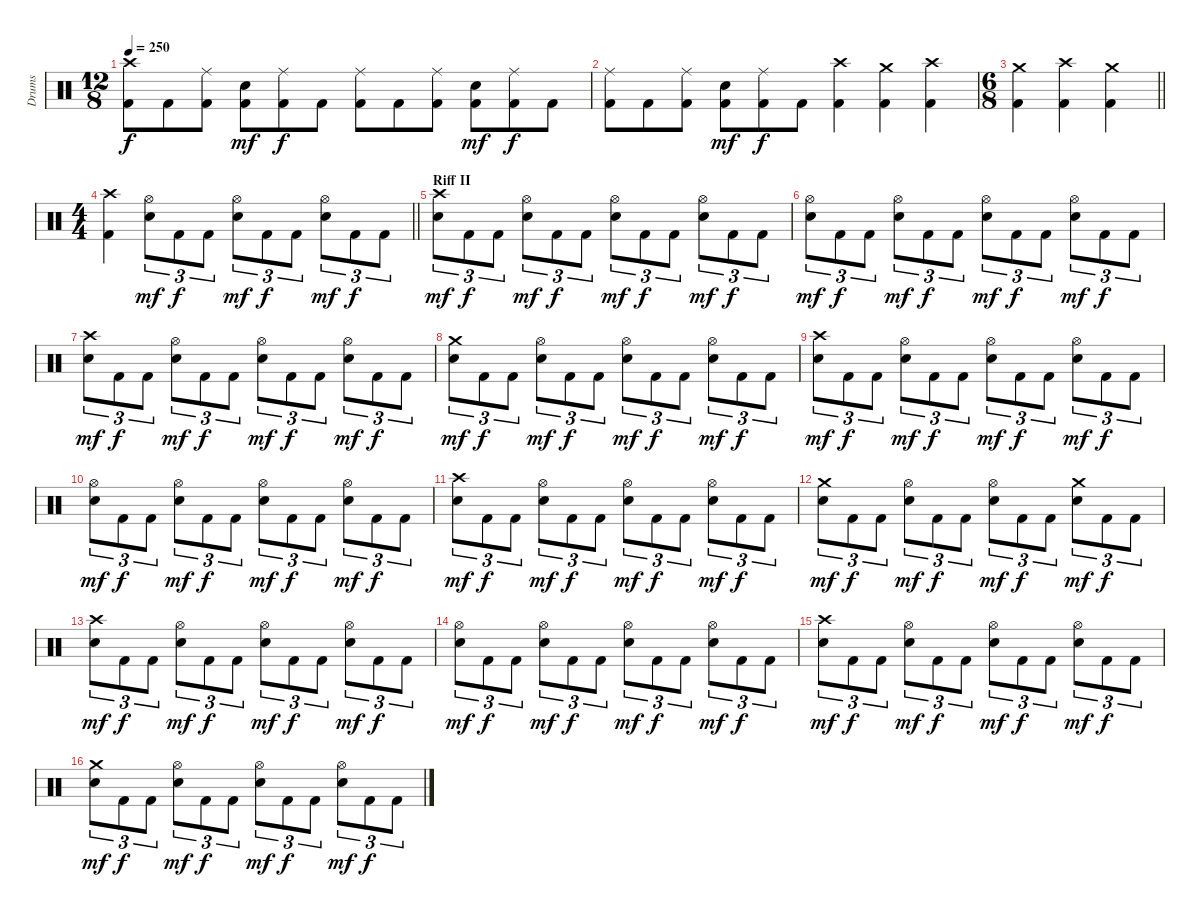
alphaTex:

\track ("Drums" "Drums") {instrument percussion}
\staff {score}
\articulation defaults
\ts (12 8)
\tempo 250
\clef neutral
\ks c
("Crash high (hit)" "Kick (hit) 2").8{dy f} "Kick (hit) 2".8 ("Ride (middle)" "Kick (hit) 2").8 ("Electric Snare (hit)" "Kick (hit) 2").8{dy mf} ("Ride (middle)" "Kick (hit) 2").8{dy f} "Kick (hit) 2".8 ("Ride (middle)" "Kick (hit) 2").8 "Kick (hit) 2".8 ("Ride (middle)" "Kick (hit) 2").8 ("Electric Snare (hit)" "Kick (hit) 2").8{dy mf} ("Ride (middle)" "Kick (hit) 2").8{dy f} "Kick (hit) 2".8 |
("Ride (middle)" "Kick (hit) 2").8 "Kick (hit) 2".8 ("Ride (middle)" "Kick (hit) 2").8 ("Electric Snare (hit)" "Kick (hit) 2").8{dy mf} ("Ride (middle)" "Kick (hit) 2").8{dy f} "Kick (hit) 2".8 ("Crash high (hit)" "Kick (hit) 2").4 ("Crash medium (hit)" "Kick (hit) 2").4 ("Crash high (hit)" "Kick (hit) 2").4 |
\ts (6 8)
\barLineRight lightlight
("Crash medium (hit)" "Kick (hit) 2").4 ("Crash high (hit)" "Kick (hit) 2").4 ("Crash medium (hit)" "Kick (hit) 2").4 |
\ts (4 4)
\barLineRight lightlight
("Crash high (hit)" "Kick (hit) 2").4 ("Hi-Hat (open)" "Electric Snare (hit)").8{tu (3 2) dy mf} "Kick (hit) 2".8{tu (3 2) dy f} "Kick (hit) 2".8{tu (3 2)} ("Hi-Hat (open)" "Electric Snare (hit)").8{tu (3 2) dy mf} "Kick (hit) 2".8{tu (3 2) dy f} "Kick (hit) 2".8{tu (3 2)} ("Hi-Hat (open)" "Electric Snare (hit)").8{tu (3 2) dy mf} "Kick (hit) 2".8{tu (3 2) dy f} "Kick (hit) 2".8{tu (3 2)} |
\section ("" "Riff II")
("Crash high (hit)" "Electric Snare (hit)").8{tu (3 2) dy mf} "Kick (hit) 2".8{tu (3 2) dy f} "Kick (hit) 2".8{tu (3 2)} ("Hi-Hat (open)" "Electric Snare (hit)").8{tu (3 2) dy mf} "Kick (hit) 2".8{tu (3 2) dy f} "Kick (hit) 2".8{tu (3 2)} ("Hi-Hat (open)" "Electric Snare (hit)").8{tu (3 2) dy mf} "Kick (hit) 2".8{tu (3 2) dy f} "Kick (hit) 2".8{tu (3 2)} ("Hi-Hat (open)" "Electric Snare (hit)").8{tu (3 2) dy mf} "Kick (hit) 2".8{tu (3 2) dy f} "Kick (hit) 2".8{tu (3 2)} |
("Hi-Hat (open)" "Electric Snare (hit)").8{tu (3 2) dy mf} "Kick (hit) 2".8{tu (3 2) dy f} "Kick (hit) 2".8{tu (3 2)} ("Hi-Hat (open)" "Electric Snare (hit)").8{tu (3 2) dy mf} "Kick (hit) 2".8{tu (3 2) dy f} "Kick (hit) 2".8{tu (3 2)} ("Hi-Hat (open)" "Electric Snare (hit)").8{tu (3 2) dy mf} "Kick (hit) 2".8{tu (3 2) dy f} "Kick (hit) 2".8{tu (3 2)} ("Hi-Hat (open)" "Electric Snare (hit)").8{tu (3 2) dy mf} "Kick (hit) 2".8{tu (3 2) dy f} "Kick (hit) 2".8{tu (3 2)} |
("Crash high (hit)" "Electric Snare (hit)").8{tu (3 2) dy mf} "Kick (hit) 2".8{tu (3 2) dy f} "Kick (hit) 2".8{tu (3 2)} ("Hi-Hat (open)" "Electric Snare (hit)").8{tu (3 2) dy mf} "Kick (hit) 2".8{tu (3 2) dy f} "Kick (hit) 2".8{tu (3 2)} ("Hi-Hat (open)" "Electric Snare (hit)").8{tu (3 2) dy mf} "Kick (hit) 2".8{tu (3 2) dy f} "Kick (hit) 2".8{tu (3 2)} ("Hi-Hat (open)" "Electric Snare (hit)").8{tu (3 2) dy mf} "Kick (hit) 2".8{tu (3 2) dy f} "Kick (hit) 2".8{tu (3 2)} |
("Crash medium (hit)" "Electric Snare (hit)").8{tu (3 2) dy mf} "Kick (hit) 2".8{tu (3 2) dy f} "Kick (hit) 2".8{tu (3 2)} ("Hi-Hat (open)" "Electric Snare (hit)").8{tu (3 2) dy mf} "Kick (hit) 2".8{tu (3 2) dy f} "Kick (hit) 2".8{tu (3 2)} ("Hi-Hat (open)" "Electric Snare (hit)").8{tu (3 2) dy mf} "Kick (hit) 2".8{tu (3 2) dy f} "Kick (hit) 2".8{tu (3 2)} ("Hi-Hat (open)" "Electric Snare (hit)").8{tu (3 2) dy mf} "Kick (hit) 2".8{tu (3 2) dy f} "Kick (hit) 2".8{tu (3 2)} |
("Crash high (hit)" "Electric Snare (hit)").8{tu (3 2) dy mf} "Kick (hit) 2".8{tu (3 2) dy f} "Kick (hit) 2".8{tu (3 2)} ("Hi-Hat (open)" "Electric Snare (hit)").8{tu (3 2) dy mf} "Kick (hit) 2".8{tu (3 2) dy f} "Kick (hit) 2".8{tu (3 2)} ("Hi-Hat (open)" "Electric Snare (hit)").8{tu (3 2) dy mf} "Kick (hit) 2".8{tu (3 2) dy f} "Kick (hit) 2".8{tu (3 2)} ("Hi-Hat (open)" "Electric Snare (hit)").8{tu (3 2) dy mf} "Kick (hit) 2".8{tu (3 2) dy f} "Kick (hit) 2".8{tu (3 2)} |
("Hi-Hat (open)" "Electric Snare (hit)").8{tu (3 2) dy mf} "Kick (hit) 2".8{tu (3 2) dy f} "Kick (hit) 2".8{tu (3 2)} ("Hi-Hat (open)" "Electric Snare (hit)").8{tu (3 2) dy mf} "Kick (hit) 2".8{tu (3 2) dy f} "Kick (hit) 2".8{tu (3 2)} ("Hi-Hat (open)" "Electric Snare (hit)").8{tu (3 2) dy mf} "Kick (hit) 2".8{tu (3 2) dy f} "Kick (hit) 2".8{tu (3 2)} ("Hi-Hat (open)" "Electric Snare (hit)").8{tu (3 2) dy mf} "Kick (hit) 2".8{tu (3 2) dy f} "Kick (hit) 2".8{tu (3 2)} |
("Crash high (hit)" "Electric Snare (hit)").8{tu (3 2) dy mf} "Kick (hit) 2".8{tu (3 2) dy f} "Kick (hit) 2".8{tu (3 2)} ("Hi-Hat (open)" "Electric Snare (hit)").8{tu (3 2) dy mf} "Kick (hit) 2".8{tu (3 2) dy f} "Kick (hit) 2".8{tu (3 2)} ("Hi-Hat (open)" "Electric Snare (hit)").8{tu (3 2) dy mf} "Kick (hit) 2".8{tu (3 2) dy f} "Kick (hit) 2".8{tu (3 2)} ("Hi-Hat (open)" "Electric Snare (hit)").8{tu (3 2) dy mf} "Kick (hit) 2".8{tu (3 2) dy f} "Kick (hit) 2".8{tu (3 2)} |
("Crash medium (hit)" "Electric Snare (hit)").8{tu (3 2) dy mf} "Kick (hit) 2".8{tu (3 2) dy f} "Kick (hit) 2".8{tu (3 2)} ("Hi-Hat (open)" "Electric Snare (hit)").8{tu (3 2) dy mf} "Kick (hit) 2".8{tu (3 2) dy f} "Kick (hit) 2".8{tu (3 2)} ("Hi-Hat (open)" "Electric Snare (hit)").8{tu (3 2) dy mf} "Kick (hit) 2".8{tu (3 2) dy f} "Kick (hit) 2".8{tu (3 2)} ("Crash medium (hit)" "Electric Snare (hit)").8{tu (3 2) dy mf} "Kick (hit) 2".8{tu (3 2) dy f} "Kick (hit) 2".8{tu (3 2)} |
("Crash high (hit)" "Electric Snare (hit)").8{tu (3 2) dy mf} "Kick (hit) 2".8{tu (3 2) dy f} "Kick (hit) 2".8{tu (3 2)} ("Hi-Hat (open)" "Electric Snare (hit)").8{tu (3 2) dy mf} "Kick (hit) 2".8{tu (3 2) dy f} "Kick (hit) 2".8{tu (3 2)} ("Hi-Hat (open)" "Electric Snare (hit)").8{tu (3 2) dy mf} "Kick (hit) 2".8{tu (3 2) dy f} "Kick (hit) 2".8{tu (3 2)} ("Hi-Hat (open)" "Electric Snare (hit)").8{tu (3 2) dy mf} "Kick (hit) 2".8{tu (3 2) dy f} "Kick (hit) 2".8{tu (3 2)} |
("Hi-Hat (open)" "Electric Snare (hit)").8{tu (3 2) dy mf} "Kick (hit) 2".8{tu (3 2) dy f} "Kick (hit) 2".8{tu (3 2)} ("Hi-Hat (open)" "Electric Snare (hit)").8{tu (3 2) dy mf} "Kick (hit) 2".8{tu (3 2) dy f} "Kick (hit) 2".8{tu (3 2)} ("Hi-Hat (open)" "Electric Snare (hit)").8{tu (3 2) dy mf} "Kick (hit) 2".8{tu (3 2) dy f} "Kick (hit) 2".8{tu (3 2)} ("Hi-Hat (open)" "Electric Snare (hit)").8{tu (3 2) dy mf} "Kick (hit) 2".8{tu (3 2) dy f} "Kick (hit) 2".8{tu (3 2)} |
("Crash high (hit)" "Electric Snare (hit)").8{tu (3 2) dy mf} "Kick (hit) 2".8{tu (3 2) dy f} "Kick (hit) 2".8{tu (3 2)} ("Hi-Hat (open)" "Electric Snare (hit)").8{tu (3 2) dy mf} "Kick (hit) 2".8{tu (3 2) dy f} "Kick (hit) 2".8{tu (3 2)} ("Hi-Hat (open)" "Electric Snare (hit)").8{tu (3 2) dy mf} "Kick (hit) 2".8{tu (3 2) dy f} "Kick (hit) 2".8{tu (3 2)} ("Hi-Hat (open)" "Electric Snare (hit)").8{tu (3 2) dy mf} "Kick (hit) 2".8{tu (3 2) dy f} "Kick (hit) 2".8{tu (3 2)} |
("Crash medium (hit)" "Electric Snare (hit)").8{tu (3 2) dy mf} "Kick (hit) 2".8{tu (3 2) dy f} "Kick (hit) 2".8{tu (3 2)} ("Hi-Hat (open)" "Electric Snare (hit)").8{tu (3 2) dy mf} "Kick (hit) 2".8{tu (3 2) dy f} "Kick (hit) 2".8{tu (3 2)} ("Hi-Hat (open)" "Electric Snare (hit)").8{tu (3 2) dy mf} "Kick (hit) 2".8{tu (3 2) dy f} "Kick (hit) 2".8{tu (3 2)} ("Hi-Hat (open)" "Electric Snare (hit)").8{tu (3 2) dy mf} "Kick (hit) 2".8{tu (3 2) dy f} "Kick (hit) 2".8{tu (3 2)}
